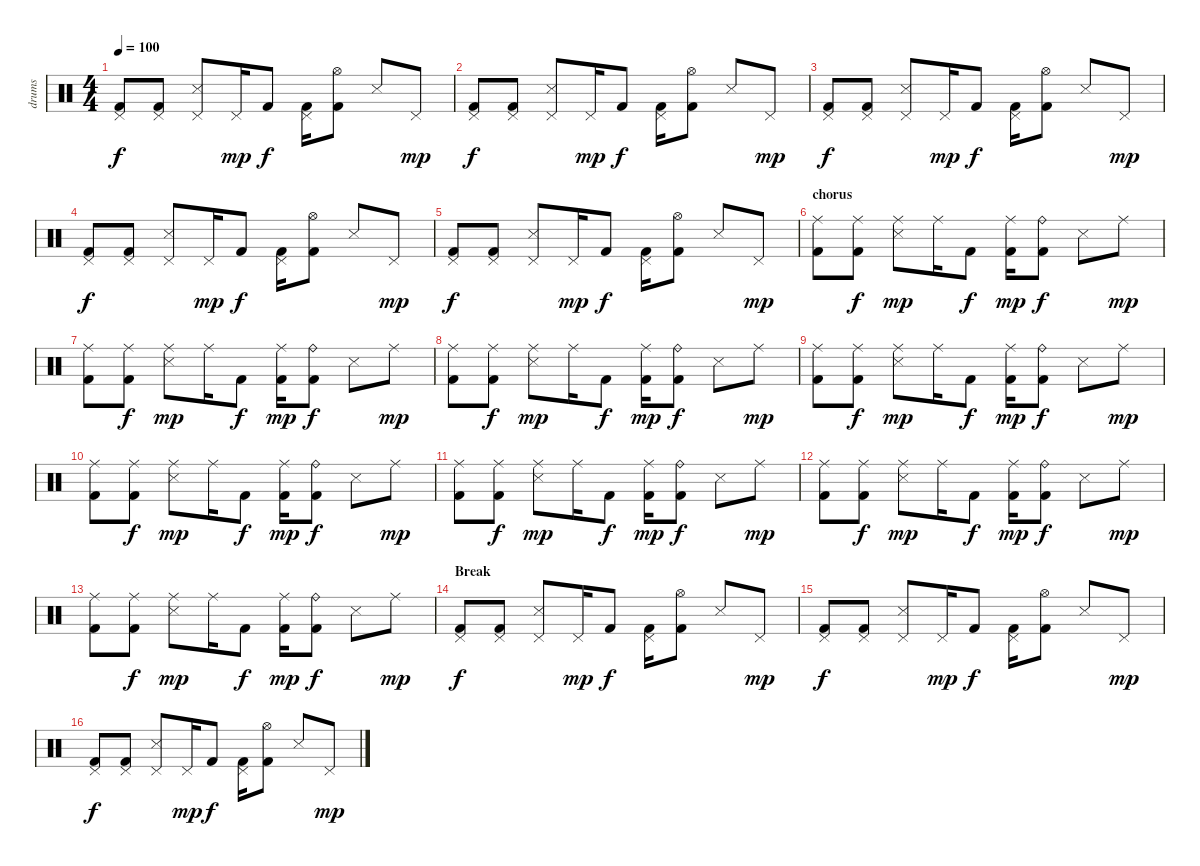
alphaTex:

\track ("drums" "drums") {instrument percussion}
\staff {score}
\articulation defaults
\ts (4 4)
\tempo 100
\clef neutral
\ks c
("Pedal Hi-Hat (hit)" "Kick (hit) 2").8{dy f} ("Pedal Hi-Hat (hit)" "Kick (hit) 2").8 ("Pedal Hi-Hat (hit)" "Snare (side stick) 3").8 "Pedal Hi-Hat (hit)".16{dy mp} "Kick (hit) 2".8{dy f} ("Pedal Hi-Hat (hit)" "Kick (hit) 2").16 ("Hi-Hat (open)" "Kick (hit) 2").8 "Snare (side stick) 3".8 "Pedal Hi-Hat (hit)".8{dy mp} |
("Pedal Hi-Hat (hit)" "Kick (hit) 2").8{dy f} ("Pedal Hi-Hat (hit)" "Kick (hit) 2").8 ("Pedal Hi-Hat (hit)" "Snare (side stick) 3").8 "Pedal Hi-Hat (hit)".16{dy mp} "Kick (hit) 2".8{dy f} ("Pedal Hi-Hat (hit)" "Kick (hit) 2").16 ("Hi-Hat (open)" "Kick (hit) 2").8 "Snare (side stick) 3".8 "Pedal Hi-Hat (hit)".8{dy mp} |
("Pedal Hi-Hat (hit)" "Kick (hit) 2").8{dy f} ("Pedal Hi-Hat (hit)" "Kick (hit) 2").8 ("Pedal Hi-Hat (hit)" "Snare (side stick) 3").8 "Pedal Hi-Hat (hit)".16{dy mp} "Kick (hit) 2".8{dy f} ("Pedal Hi-Hat (hit)" "Kick (hit) 2").16 ("Hi-Hat (open)" "Kick (hit) 2").8 "Snare (side stick) 3".8 "Pedal Hi-Hat (hit)".8{dy mp} |
("Pedal Hi-Hat (hit)" "Kick (hit) 2").8{dy f} ("Pedal Hi-Hat (hit)" "Kick (hit) 2").8 ("Pedal Hi-Hat (hit)" "Snare (side stick) 3").8 "Pedal Hi-Hat (hit)".16{dy mp} "Kick (hit) 2".8{dy f} ("Pedal Hi-Hat (hit)" "Kick (hit) 2").16 ("Hi-Hat (open)" "Kick (hit) 2").8 "Snare (side stick) 3".8 "Pedal Hi-Hat (hit)".8{dy mp} |
("Pedal Hi-Hat (hit)" "Kick (hit) 2").8{dy f} ("Pedal Hi-Hat (hit)" "Kick (hit) 2").8 ("Pedal Hi-Hat (hit)" "Snare (side stick) 3").8 "Pedal Hi-Hat (hit)".16{dy mp} "Kick (hit) 2".8{dy f} ("Pedal Hi-Hat (hit)" "Kick (hit) 2").16 ("Hi-Hat (open)" "Kick (hit) 2").8 "Snare (side stick) 3".8 "Pedal Hi-Hat (hit)".8{dy mp} |
\section ("" "chorus")
("Ride (middle)" "Kick (hit) 2").8 ("Ride (middle)" "Kick (hit) 2").8{dy f} ("Ride (middle)" "Snare (side stick) 3").8{dy mp} "Ride (middle)".16 "Kick (hit) 2".8{dy f} ("Ride (middle)" "Kick (hit) 2").16{dy mp} ("Ride (bell)" "Kick (hit) 2").8{dy f} "Snare (side stick) 3".8 "Ride (middle)".8{dy mp} |
("Ride (middle)" "Kick (hit) 2").8 ("Ride (middle)" "Kick (hit) 2").8{dy f} ("Ride (middle)" "Snare (side stick) 3").8{dy mp} "Ride (middle)".16 "Kick (hit) 2".8{dy f} ("Ride (middle)" "Kick (hit) 2").16{dy mp} ("Ride (bell)" "Kick (hit) 2").8{dy f} "Snare (side stick) 3".8 "Ride (middle)".8{dy mp} |
("Ride (middle)" "Kick (hit) 2").8 ("Ride (middle)" "Kick (hit) 2").8{dy f} ("Ride (middle)" "Snare (side stick) 3").8{dy mp} "Ride (middle)".16 "Kick (hit) 2".8{dy f} ("Ride (middle)" "Kick (hit) 2").16{dy mp} ("Ride (bell)" "Kick (hit) 2").8{dy f} "Snare (side stick) 3".8 "Ride (middle)".8{dy mp} |
("Ride (middle)" "Kick (hit) 2").8 ("Ride (middle)" "Kick (hit) 2").8{dy f} ("Ride (middle)" "Snare (side stick) 3").8{dy mp} "Ride (middle)".16 "Kick (hit) 2".8{dy f} ("Ride (middle)" "Kick (hit) 2").16{dy mp} ("Ride (bell)" "Kick (hit) 2").8{dy f} "Snare (side stick) 3".8 "Ride (middle)".8{dy mp} |
("Ride (middle)" "Kick (hit) 2").8 ("Ride (middle)" "Kick (hit) 2").8{dy f} ("Ride (middle)" "Snare (side stick) 3").8{dy mp} "Ride (middle)".16 "Kick (hit) 2".8{dy f} ("Ride (middle)" "Kick (hit) 2").16{dy mp} ("Ride (bell)" "Kick (hit) 2").8{dy f} "Snare (side stick) 3".8 "Ride (middle)".8{dy mp} |
("Ride (middle)" "Kick (hit) 2").8 ("Ride (middle)" "Kick (hit) 2").8{dy f} ("Ride (middle)" "Snare (side stick) 3").8{dy mp} "Ride (middle)".16 "Kick (hit) 2".8{dy f} ("Ride (middle)" "Kick (hit) 2").16{dy mp} ("Ride (bell)" "Kick (hit) 2").8{dy f} "Snare (side stick) 3".8 "Ride (middle)".8{dy mp} |
("Ride (middle)" "Kick (hit) 2").8 ("Ride (middle)" "Kick (hit) 2").8{dy f} ("Ride (middle)" "Snare (side stick) 3").8{dy mp} "Ride (middle)".16 "Kick (hit) 2".8{dy f} ("Ride (middle)" "Kick (hit) 2").16{dy mp} ("Ride (bell)" "Kick (hit) 2").8{dy f} "Snare (side stick) 3".8 "Ride (middle)".8{dy mp} |
("Ride (middle)" "Kick (hit) 2").8 ("Ride (middle)" "Kick (hit) 2").8{dy f} ("Ride (middle)" "Snare (side stick) 3").8{dy mp} "Ride (middle)".16 "Kick (hit) 2".8{dy f} ("Ride (middle)" "Kick (hit) 2").16{dy mp} ("Ride (bell)" "Kick (hit) 2").8{dy f} "Snare (side stick) 3".8 "Ride (middle)".8{dy mp} |
\section ("" "Break")
("Pedal Hi-Hat (hit)" "Kick (hit) 2").8{dy f} ("Pedal Hi-Hat (hit)" "Kick (hit) 2").8 ("Pedal Hi-Hat (hit)" "Snare (side stick) 3").8 "Pedal Hi-Hat (hit)".16{dy mp} "Kick (hit) 2".8{dy f} ("Pedal Hi-Hat (hit)" "Kick (hit) 2").16 ("Hi-Hat (open)" "Kick (hit) 2").8 "Snare (side stick) 3".8 "Pedal Hi-Hat (hit)".8{dy mp} |
("Pedal Hi-Hat (hit)" "Kick (hit) 2").8{dy f} ("Pedal Hi-Hat (hit)" "Kick (hit) 2").8 ("Pedal Hi-Hat (hit)" "Snare (side stick) 3").8 "Pedal Hi-Hat (hit)".16{dy mp} "Kick (hit) 2".8{dy f} ("Pedal Hi-Hat (hit)" "Kick (hit) 2").16 ("Hi-Hat (open)" "Kick (hit) 2").8 "Snare (side stick) 3".8 "Pedal Hi-Hat (hit)".8{dy mp} |
("Pedal Hi-Hat (hit)" "Kick (hit) 2").8{dy f} ("Pedal Hi-Hat (hit)" "Kick (hit) 2").8 ("Pedal Hi-Hat (hit)" "Snare (side stick) 3").8 "Pedal Hi-Hat (hit)".16{dy mp} "Kick (hit) 2".8{dy f} ("Pedal Hi-Hat (hit)" "Kick (hit) 2").16 ("Hi-Hat (open)" "Kick (hit) 2").8 "Snare (side stick) 3".8 "Pedal Hi-Hat (hit)".8{dy mp}
